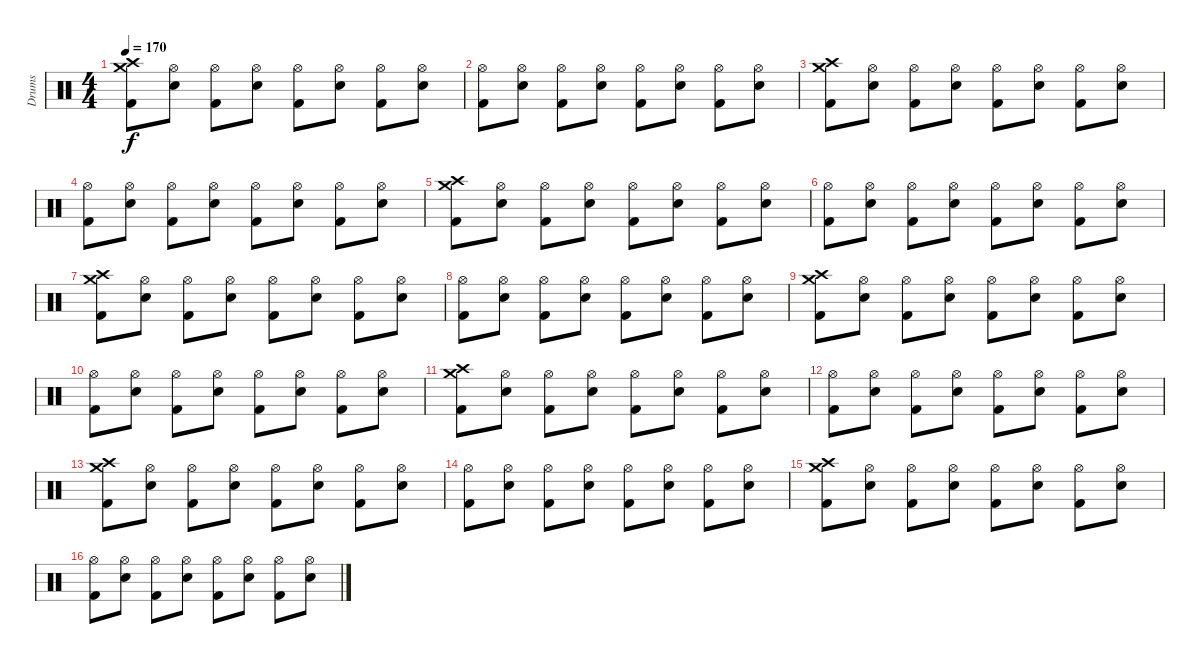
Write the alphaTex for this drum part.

\track ("Drums" "Drums") {instrument percussion}
\staff {score}
\articulation defaults
\ts (4 4)
\tempo 170
\clef neutral
\ks c
("Crash medium (hit)" "Crash high (hit)" "Kick (hit) 2").8{dy f} ("Hi-Hat (open)" "Snare (hit) 2").8 ("Hi-Hat (open)" "Kick (hit) 2").8 ("Hi-Hat (open)" "Snare (hit) 2").8 ("Hi-Hat (open)" "Kick (hit) 2").8 ("Hi-Hat (open)" "Snare (hit) 2").8 ("Hi-Hat (open)" "Kick (hit) 2").8 ("Hi-Hat (open)" "Snare (hit) 2").8 |
("Hi-Hat (open)" "Kick (hit) 2").8 ("Hi-Hat (open)" "Snare (hit) 2").8 ("Hi-Hat (open)" "Kick (hit) 2").8 ("Hi-Hat (open)" "Snare (hit) 2").8 ("Hi-Hat (open)" "Kick (hit) 2").8 ("Hi-Hat (open)" "Snare (hit) 2").8 ("Hi-Hat (open)" "Kick (hit) 2").8 ("Hi-Hat (open)" "Snare (hit) 2").8 |
("Crash medium (hit)" "Crash high (hit)" "Kick (hit) 2").8 ("Hi-Hat (open)" "Snare (hit) 2").8 ("Hi-Hat (open)" "Kick (hit) 2").8 ("Hi-Hat (open)" "Snare (hit) 2").8 ("Hi-Hat (open)" "Kick (hit) 2").8 ("Hi-Hat (open)" "Snare (hit) 2").8 ("Hi-Hat (open)" "Kick (hit) 2").8 ("Hi-Hat (open)" "Snare (hit) 2").8 |
("Hi-Hat (open)" "Kick (hit) 2").8 ("Hi-Hat (open)" "Snare (hit) 2").8 ("Hi-Hat (open)" "Kick (hit) 2").8 ("Hi-Hat (open)" "Snare (hit) 2").8 ("Hi-Hat (open)" "Kick (hit) 2").8 ("Hi-Hat (open)" "Snare (hit) 2").8 ("Hi-Hat (open)" "Kick (hit) 2").8 ("Hi-Hat (open)" "Snare (hit) 2").8 |
("Crash medium (hit)" "Crash high (hit)" "Kick (hit) 2").8 ("Hi-Hat (open)" "Snare (hit) 2").8 ("Hi-Hat (open)" "Kick (hit) 2").8 ("Hi-Hat (open)" "Snare (hit) 2").8 ("Hi-Hat (open)" "Kick (hit) 2").8 ("Hi-Hat (open)" "Snare (hit) 2").8 ("Hi-Hat (open)" "Kick (hit) 2").8 ("Hi-Hat (open)" "Snare (hit) 2").8 |
("Hi-Hat (open)" "Kick (hit) 2").8 ("Hi-Hat (open)" "Snare (hit) 2").8 ("Hi-Hat (open)" "Kick (hit) 2").8 ("Hi-Hat (open)" "Snare (hit) 2").8 ("Hi-Hat (open)" "Kick (hit) 2").8 ("Hi-Hat (open)" "Snare (hit) 2").8 ("Hi-Hat (open)" "Kick (hit) 2").8 ("Hi-Hat (open)" "Snare (hit) 2").8 |
("Crash medium (hit)" "Crash high (hit)" "Kick (hit) 2").8 ("Hi-Hat (open)" "Snare (hit) 2").8 ("Hi-Hat (open)" "Kick (hit) 2").8 ("Hi-Hat (open)" "Snare (hit) 2").8 ("Hi-Hat (open)" "Kick (hit) 2").8 ("Hi-Hat (open)" "Snare (hit) 2").8 ("Hi-Hat (open)" "Kick (hit) 2").8 ("Hi-Hat (open)" "Snare (hit) 2").8 |
("Hi-Hat (open)" "Kick (hit) 2").8 ("Hi-Hat (open)" "Snare (hit) 2").8 ("Hi-Hat (open)" "Kick (hit) 2").8 ("Hi-Hat (open)" "Snare (hit) 2").8 ("Hi-Hat (open)" "Kick (hit) 2").8 ("Hi-Hat (open)" "Snare (hit) 2").8 ("Hi-Hat (open)" "Kick (hit) 2").8 ("Hi-Hat (open)" "Snare (hit) 2").8 |
("Crash medium (hit)" "Crash high (hit)" "Kick (hit) 2").8 ("Hi-Hat (open)" "Snare (hit) 2").8 ("Hi-Hat (open)" "Kick (hit) 2").8 ("Hi-Hat (open)" "Snare (hit) 2").8 ("Hi-Hat (open)" "Kick (hit) 2").8 ("Hi-Hat (open)" "Snare (hit) 2").8 ("Hi-Hat (open)" "Kick (hit) 2").8 ("Hi-Hat (open)" "Snare (hit) 2").8 |
("Hi-Hat (open)" "Kick (hit) 2").8 ("Hi-Hat (open)" "Snare (hit) 2").8 ("Hi-Hat (open)" "Kick (hit) 2").8 ("Hi-Hat (open)" "Snare (hit) 2").8 ("Hi-Hat (open)" "Kick (hit) 2").8 ("Hi-Hat (open)" "Snare (hit) 2").8 ("Hi-Hat (open)" "Kick (hit) 2").8 ("Hi-Hat (open)" "Snare (hit) 2").8 |
("Crash medium (hit)" "Crash high (hit)" "Kick (hit) 2").8 ("Hi-Hat (open)" "Snare (hit) 2").8 ("Hi-Hat (open)" "Kick (hit) 2").8 ("Hi-Hat (open)" "Snare (hit) 2").8 ("Hi-Hat (open)" "Kick (hit) 2").8 ("Hi-Hat (open)" "Snare (hit) 2").8 ("Hi-Hat (open)" "Kick (hit) 2").8 ("Hi-Hat (open)" "Snare (hit) 2").8 |
("Hi-Hat (open)" "Kick (hit) 2").8 ("Hi-Hat (open)" "Snare (hit) 2").8 ("Hi-Hat (open)" "Kick (hit) 2").8 ("Hi-Hat (open)" "Snare (hit) 2").8 ("Hi-Hat (open)" "Kick (hit) 2").8 ("Hi-Hat (open)" "Snare (hit) 2").8 ("Hi-Hat (open)" "Kick (hit) 2").8 ("Hi-Hat (open)" "Snare (hit) 2").8 |
("Crash medium (hit)" "Crash high (hit)" "Kick (hit) 2").8 ("Hi-Hat (open)" "Snare (hit) 2").8 ("Hi-Hat (open)" "Kick (hit) 2").8 ("Hi-Hat (open)" "Snare (hit) 2").8 ("Hi-Hat (open)" "Kick (hit) 2").8 ("Hi-Hat (open)" "Snare (hit) 2").8 ("Hi-Hat (open)" "Kick (hit) 2").8 ("Hi-Hat (open)" "Snare (hit) 2").8 |
("Hi-Hat (open)" "Kick (hit) 2").8 ("Hi-Hat (open)" "Snare (hit) 2").8 ("Hi-Hat (open)" "Kick (hit) 2").8 ("Hi-Hat (open)" "Snare (hit) 2").8 ("Hi-Hat (open)" "Kick (hit) 2").8 ("Hi-Hat (open)" "Snare (hit) 2").8 ("Hi-Hat (open)" "Kick (hit) 2").8 ("Hi-Hat (open)" "Snare (hit) 2").8 |
("Crash medium (hit)" "Crash high (hit)" "Kick (hit) 2").8 ("Hi-Hat (open)" "Snare (hit) 2").8 ("Hi-Hat (open)" "Kick (hit) 2").8 ("Hi-Hat (open)" "Snare (hit) 2").8 ("Hi-Hat (open)" "Kick (hit) 2").8 ("Hi-Hat (open)" "Snare (hit) 2").8 ("Hi-Hat (open)" "Kick (hit) 2").8 ("Hi-Hat (open)" "Snare (hit) 2").8 |
("Hi-Hat (open)" "Kick (hit) 2").8 ("Hi-Hat (open)" "Snare (hit) 2").8 ("Hi-Hat (open)" "Kick (hit) 2").8 ("Hi-Hat (open)" "Snare (hit) 2").8 ("Hi-Hat (open)" "Kick (hit) 2").8 ("Hi-Hat (open)" "Snare (hit) 2").8 ("Hi-Hat (open)" "Kick (hit) 2").8 ("Hi-Hat (open)" "Snare (hit) 2").8
